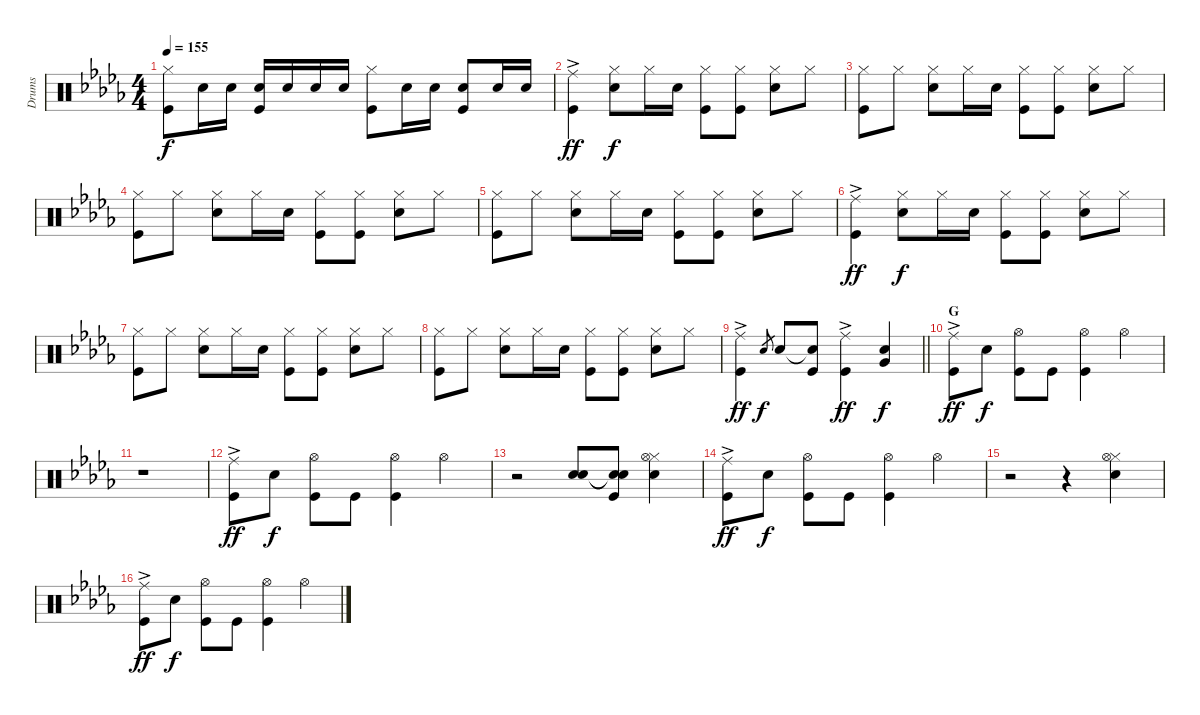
\track ("Drums" "Drums") {instrument percussion}
\staff {score}
\articulation defaults
\ts (4 4)
\tempo 155
\clef neutral
\ks db
("Hi-Hat (closed)" "Kick (hit)").8{dy f} "Snare (hit) 2".16 "Snare (hit) 2".16 ("Snare (hit) 2" "Kick (hit)").16 "Snare (hit) 2".16 "Snare (hit) 2".16 "Snare (hit) 2".16 ("Hi-Hat (closed)" "Kick (hit)").8 "Snare (hit) 2".16 "Snare (hit) 2".16 ("Snare (hit) 2" "Kick (hit)").8 "Snare (hit) 2".16 "Snare (hit) 2".16 |
("Ride (middle)"{ac} "Kick (hit)"{ac}).4{dy ff} ("Hi-Hat (closed)" "Snare (hit) 2").8{dy f} "Hi-Hat (closed)".16 "Snare (hit) 2".16 ("Hi-Hat (closed)" "Kick (hit)").8 ("Hi-Hat (closed)" "Kick (hit)").8 ("Hi-Hat (closed)" "Snare (hit) 2").8 "Hi-Hat (closed)".8 |
("Hi-Hat (closed)" "Kick (hit)").8 "Hi-Hat (closed)".8 ("Hi-Hat (closed)" "Snare (hit) 2").8 "Hi-Hat (closed)".16 "Snare (hit) 2".16 ("Hi-Hat (closed)" "Kick (hit)").8 ("Hi-Hat (closed)" "Kick (hit)").8 ("Hi-Hat (closed)" "Snare (hit) 2").8 "Hi-Hat (closed)".8 |
("Hi-Hat (closed)" "Kick (hit)").8 "Hi-Hat (closed)".8 ("Hi-Hat (closed)" "Snare (hit) 2").8 "Hi-Hat (closed)".16 "Snare (hit) 2".16 ("Hi-Hat (closed)" "Kick (hit)").8 ("Hi-Hat (closed)" "Kick (hit)").8 ("Hi-Hat (closed)" "Snare (hit) 2").8 "Hi-Hat (closed)".8 |
("Hi-Hat (closed)" "Kick (hit)").8 "Hi-Hat (closed)".8 ("Hi-Hat (closed)" "Snare (hit) 2").8 "Hi-Hat (closed)".16 "Snare (hit) 2".16 ("Hi-Hat (closed)" "Kick (hit)").8 ("Hi-Hat (closed)" "Kick (hit)").8 ("Hi-Hat (closed)" "Snare (hit) 2").8 "Hi-Hat (closed)".8 |
("Ride (middle)"{ac} "Kick (hit)"{ac}).4{dy ff} ("Hi-Hat (closed)" "Snare (hit) 2").8{dy f} "Hi-Hat (closed)".16 "Snare (hit) 2".16 ("Hi-Hat (closed)" "Kick (hit)").8 ("Hi-Hat (closed)" "Kick (hit)").8 ("Hi-Hat (closed)" "Snare (hit) 2").8 "Hi-Hat (closed)".8 |
("Hi-Hat (closed)" "Kick (hit)").8 "Hi-Hat (closed)".8 ("Hi-Hat (closed)" "Snare (hit) 2").8 "Hi-Hat (closed)".16 "Snare (hit) 2".16 ("Hi-Hat (closed)" "Kick (hit)").8 ("Hi-Hat (closed)" "Kick (hit)").8 ("Hi-Hat (closed)" "Snare (hit) 2").8 "Hi-Hat (closed)".8 |
("Hi-Hat (closed)" "Kick (hit)").8 "Hi-Hat (closed)".8 ("Hi-Hat (closed)" "Snare (hit) 2").8 "Hi-Hat (closed)".16 "Snare (hit) 2".16 ("Hi-Hat (closed)" "Kick (hit)").8 ("Hi-Hat (closed)" "Kick (hit)").8 ("Hi-Hat (closed)" "Snare (hit) 2").8 "Hi-Hat (closed)".8 |
\barLineRight lightlight
("Ride (middle)"{ac} "Kick (hit)"{ac}).4{dy ff} "Snare (hit) 2".8{gr dy f} "Snare (hit) 2".8 ("Snare (hit) 2"{t} "Kick (hit)").8 ("Ride (middle)"{ac} "Kick (hit)"{ac}).4{dy ff} ("Snare (hit) 2" "Very Low Tom (hit)").4{dy f} |
\section ("" "G")
("Ride (middle)"{ac} "Kick (hit)"{ac}).8{dy ff} "Snare (hit) 2".8{dy f} ("Kick (hit)" "Hi-Hat (open)").8 "Kick (hit)".8 ("Kick (hit)" "Hi-Hat (open)").4 "Hi-Hat (open)".4 |
r.1 |
("Ride (middle)"{ac} "Kick (hit)"{ac}).8{dy ff} "Snare (hit) 2".8{dy f} ("Kick (hit)" "Hi-Hat (open)").8 "Kick (hit)".8 ("Kick (hit)" "Hi-Hat (open)").4 "Hi-Hat (open)".4 |
r.2 ("Snare (hit) 2" "Snare (hit) 2").8 ("Snare (hit) 2"{t} "Snare (hit) 2"{t} "Kick (hit)").8 ("Hi-Hat (closed)" "Snare (hit) 2" "Hi-Hat (open)").4 |
("Ride (middle)"{ac} "Kick (hit)"{ac}).8{dy ff} "Snare (hit) 2".8{dy f} ("Kick (hit)" "Hi-Hat (open)").8 "Kick (hit)".8 ("Kick (hit)" "Hi-Hat (open)").4 "Hi-Hat (open)".4 |
r.2 r.4 ("Hi-Hat (closed)" "Snare (hit) 2" "Hi-Hat (open)").4 |
("Ride (middle)"{ac} "Kick (hit)"{ac}).8{dy ff} "Snare (hit) 2".8{dy f} ("Kick (hit)" "Hi-Hat (open)").8 "Kick (hit)".8 ("Kick (hit)" "Hi-Hat (open)").4 "Hi-Hat (open)".4
